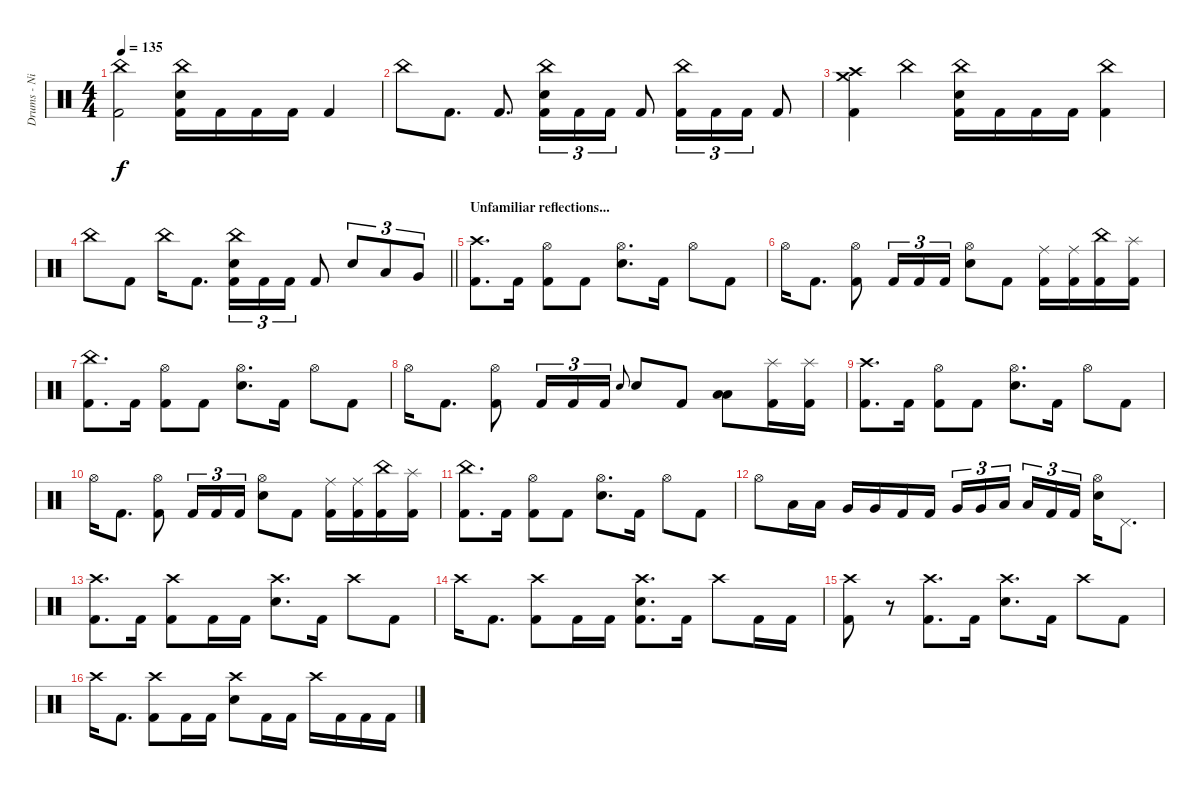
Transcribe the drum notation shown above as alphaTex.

\track ("Drums - Nic" "Drums - Ni") {instrument percussion}
\staff {score}
\articulation defaults
\ts (4 4)
\tempo 135
\clef neutral
\ks c
("China (hit)" "Kick (hit) 2").2{dy f} ("China (hit)" "Electric Snare (hit)" "Kick (hit) 2").16 "Kick (hit) 2".16 "Kick (hit) 2".16 "Kick (hit) 2".16 "Kick (hit) 2".4 |
"China (hit)".8 "Kick (hit) 2".8{d} "Kick (hit) 2".8{d} ("China (hit)" "Electric Snare (hit)" "Kick (hit) 2").16{tu (3 2)} "Kick (hit) 2".16{tu (3 2)} "Kick (hit) 2".16{tu (3 2)} "Kick (hit) 2".8 ("China (hit)" "Kick (hit) 2").16{tu (3 2)} "Kick (hit) 2".16{tu (3 2)} "Kick (hit) 2".16{tu (3 2)} "Kick (hit) 2".8 |
("Crash high (hit)" "Crash medium (hit)" "Kick (hit) 2").4 "China (hit)".4 ("China (hit)" "Electric Snare (hit)" "Kick (hit) 2").16 "Kick (hit) 2".16 "Kick (hit) 2".16 "Kick (hit) 2".16 ("China (hit)" "Kick (hit) 2").4 |
\barLineRight lightlight "China (hit)".8 "Kick (hit) 2".8 "China (hit)".16 "Kick (hit) 2".8{d}
("China (hit)" "Electric Snare (hit)" "Kick (hit) 2").16{tu (3 2)} "Kick (hit) 2".16{tu (3 2)} "Kick (hit) 2".16{tu (3 2)} "Kick (hit) 2".8 "Electric Snare (hit)".8{tu (3 2)} "Low Tom (hit)".8{tu (3 2)} "Very Low Tom (hit)".8{tu (3 2)} |
\section ("" "Unfamiliar reflections...")
("Crash high (hit)" "Kick (hit) 2").8{d} "Kick (hit) 2".16 ("Hi-Hat (open)" "Kick (hit) 2").8 "Kick (hit) 2".8 ("Hi-Hat (open)" "Electric Snare (hit)").8{d} "Kick (hit) 2".16 "Hi-Hat (open)".8 "Kick (hit) 2".8 |
"Hi-Hat (open)".16 "Kick (hit) 2".8{d} ("Hi-Hat (open)" "Kick (hit) 2").8 "Kick (hit) 2".16{tu (3 2)} "Kick (hit) 2".16{tu (3 2)} "Kick (hit) 2".16{tu (3 2)} ("Hi-Hat (open)" "Electric Snare (hit)").8 "Kick (hit) 2".8 ("Ride (middle)" "Kick (hit) 2").16 ("Ride (middle)" "Kick (hit) 2").16 ("China (hit)" "Kick (hit) 2").16 ("Splash (hit)" "Kick (hit) 2").16 |
("China (hit)" "Kick (hit) 2").8{d} "Kick (hit) 2".16 ("Hi-Hat (open)" "Kick (hit) 2").8 "Kick (hit) 2".8 ("Hi-Hat (open)" "Electric Snare (hit)").8{d} "Kick (hit) 2".16 "Hi-Hat (open)".8 "Kick (hit) 2".8 |
"Hi-Hat (open)".16 "Kick (hit) 2".8{d} ("Hi-Hat (open)" "Kick (hit) 2").8 "Kick (hit) 2".16{tu (3 2)} "Kick (hit) 2".16{tu (3 2)} "Kick (hit) 2".16{tu (3 2)} "Electric Snare (hit)".8{gr onbeat} "Electric Snare (hit)".8 "Kick (hit) 2".8 ("Low Tom (hit)" "Low Floor Tom (hit)").8 ("Splash (hit)" "Kick (hit) 2").16 ("Splash (hit)" "Kick (hit) 2").16 |
("Crash high (hit)" "Kick (hit) 2").8{d} "Kick (hit) 2".16 ("Hi-Hat (open)" "Kick (hit) 2").8 "Kick (hit) 2".8 ("Hi-Hat (open)" "Electric Snare (hit)").8{d} "Kick (hit) 2".16 "Hi-Hat (open)".8 "Kick (hit) 2".8 |
"Hi-Hat (open)".16 "Kick (hit) 2".8{d} ("Hi-Hat (open)" "Kick (hit) 2").8 "Kick (hit) 2".16{tu (3 2)} "Kick (hit) 2".16{tu (3 2)} "Kick (hit) 2".16{tu (3 2)} ("Hi-Hat (open)" "Electric Snare (hit)").8 "Kick (hit) 2".8 ("Ride (middle)" "Kick (hit) 2").16 ("Ride (middle)" "Kick (hit) 2").16 ("China (hit)" "Kick (hit) 2").16 ("Splash (hit)" "Kick (hit) 2").16 |
("China (hit)" "Kick (hit) 2").8{d} "Kick (hit) 2".16 ("Hi-Hat (open)" "Kick (hit) 2").8 "Kick (hit) 2".8 ("Hi-Hat (open)" "Electric Snare (hit)").8{d} "Kick (hit) 2".16 "Hi-Hat (open)".8 "Kick (hit) 2".8 |
"Hi-Hat (open)".8 "Low Tom (hit)".16 "Low Tom (hit)".16 "Very Low Tom (hit)".16 "Very Low Tom (hit)".16 "Kick (hit) 2".16 "Kick (hit) 2".16 "Very Low Tom (hit)".16{tu (3 2)} "Very Low Tom (hit)".16{tu (3 2)} "Low Floor Tom (hit)".16{tu (3 2) beam splitsecondary} "Low Floor Tom (hit)".16{tu (3 2)} "Kick (hit) 2".16{tu (3 2)} "Kick (hit) 2".16{tu (3 2)} ("Hi-Hat (open)" "Electric Snare (hit)").16 "Pedal Hi-Hat (hit)".8{d} |
("Crash high (hit)" "Kick (hit) 2").8{d} "Kick (hit) 2".16 ("Crash high (hit)" "Kick (hit) 2").8 "Kick (hit) 2".16 "Kick (hit) 2".16 ("Crash high (hit)" "Electric Snare (hit)").8{d} "Kick (hit) 2".16 "Crash high (hit)".8 "Kick (hit) 2".8 |
"Crash high (hit)".16 "Kick (hit) 2".8{d} ("Crash high (hit)" "Kick (hit) 2").8 "Kick (hit) 2".16 "Kick (hit) 2".16 ("Crash high (hit)" "Electric Snare (hit)" "Kick (hit) 2").8{d} "Kick (hit) 2".16 "Crash high (hit)".8 "Kick (hit) 2".16 "Kick (hit) 2".16 |
("Crash high (hit)" "Kick (hit) 2").8 r.8{volume 0} ("Crash high (hit)" "Kick (hit) 2").8{d volume 16} "Kick (hit) 2".16 ("Crash high (hit)" "Electric Snare (hit)").8{d} "Kick (hit) 2".16 "Crash high (hit)".8 "Kick (hit) 2".8 |
"Crash high (hit)".16 "Kick (hit) 2".8{d} ("Crash high (hit)" "Kick (hit) 2").8 "Kick (hit) 2".16 "Kick (hit) 2".16 ("Crash high (hit)" "Electric Snare (hit)").8 "Kick (hit) 2".16 "Kick (hit) 2".16 "Crash high (hit)".16 "Kick (hit) 2".16 "Kick (hit) 2".16 "Kick (hit) 2".16
